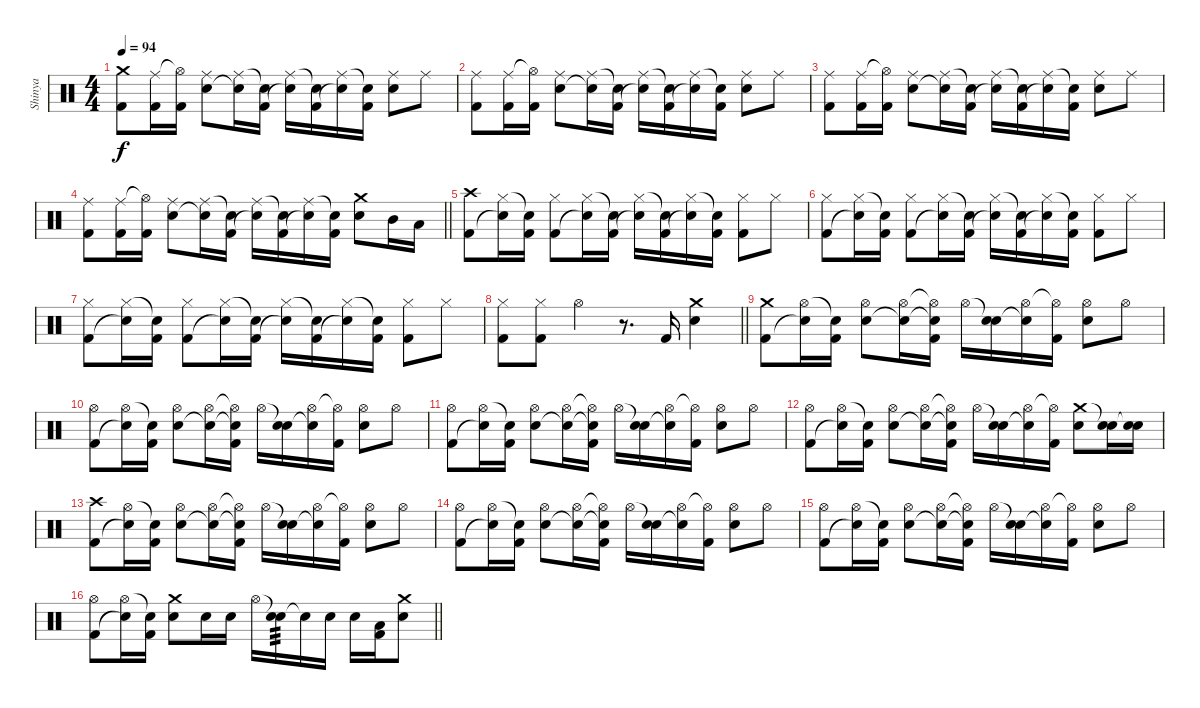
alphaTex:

\track ("Shinya" "Shinya") {instrument percussion}
\staff {score}
\articulation defaults
\ts (4 4)
\tempo 94
\clef neutral
\ks c
("Crash medium (hit)" "Kick (hit) 2").8{dy f} ("Ride (middle)" "Kick (hit) 2").16 ("Hi-Hat (open)"{t} "Kick (hit) 2").16 ("Ride (middle)" "Snare (hit) 2").8 ("Ride (middle)" "Snare (hit)"{t}).16 ("Snare (hit)"{t} "Kick (hit) 2").16 ("Ride (middle)" "Snare (hit)"{t}).16 ("Snare (hit)"{t} "Kick (hit) 2").16 ("Ride (middle)" "Snare (hit)"{t}).16 ("Snare (hit)"{t} "Kick (hit) 2").16 ("Ride (middle)" "Snare (hit) 2").8 "Ride (middle)".8 |
("Ride (middle)" "Kick (hit) 2").8 ("Ride (middle)" "Kick (hit) 2").16 ("Hi-Hat (open)"{t} "Kick (hit) 2").16 ("Ride (middle)" "Snare (hit) 2").8 ("Ride (middle)" "Snare (hit)"{t}).16 ("Snare (hit)"{t} "Kick (hit) 2").16 ("Ride (middle)" "Snare (hit)"{t}).16 ("Snare (hit)"{t} "Kick (hit) 2").16 ("Ride (middle)" "Snare (hit)"{t}).16 ("Snare (hit)"{t} "Kick (hit) 2").16 ("Ride (middle)" "Snare (hit) 2").8 "Ride (middle)".8 |
("Ride (middle)" "Kick (hit) 2").8 ("Ride (middle)" "Kick (hit) 2").16 ("Hi-Hat (open)"{t} "Kick (hit) 2").16 ("Ride (middle)" "Snare (hit) 2").8 ("Ride (middle)" "Snare (hit)"{t}).16 ("Snare (hit)"{t} "Kick (hit) 2").16 ("Ride (middle)" "Snare (hit)"{t}).16 ("Snare (hit)"{t} "Kick (hit) 2").16 ("Ride (middle)" "Snare (hit)"{t}).16 ("Snare (hit)"{t} "Kick (hit) 2").16 ("Ride (middle)" "Snare (hit) 2").8 "Ride (middle)".8 |
\barLineRight lightlight
("Ride (middle)" "Kick (hit) 2").8 ("Ride (middle)" "Kick (hit) 2").16 ("Hi-Hat (open)"{t} "Kick (hit) 2").16 ("Ride (middle)" "Snare (hit) 2").8 ("Ride (middle)" "Snare (hit)"{t}).16 ("Snare (hit)"{t} "Kick (hit) 2").16 ("Ride (middle)" "Snare (hit)"{t}).16 ("Snare (hit)"{t} "Kick (hit) 2").16 ("Ride (middle)" "Snare (hit)"{t}).16 ("Snare (hit)"{t} "Kick (hit) 2").16 ("Crash medium (hit)" "Snare (hit) 2").8 "Mid Tom (hit)".16 "Low Tom (hit)".16 |
("Crash high (hit)" "Kick (hit) 2").8 ("Hi-Hat (closed)" "Snare (hit)"{t}).16 ("Snare (hit)"{t} "Kick (hit) 2").16 ("Hi-Hat (closed)" "Kick (hit) 2").8 ("Hi-Hat (closed)" "Snare (hit)"{t}).16 ("Snare (hit)"{t} "Kick (hit) 2").16 ("Hi-Hat (closed)" "Snare (hit)"{t}).16 ("Snare (hit)"{t} "Kick (hit) 2").16 ("Hi-Hat (closed)" "Snare (hit)"{t}).16 ("Snare (hit)"{t} "Kick (hit) 2").16 ("Hi-Hat (closed)" "Kick (hit) 2").8 "Hi-Hat (closed)".8 |
("Hi-Hat (closed)" "Kick (hit) 2").8 ("Hi-Hat (closed)" "Snare (hit)"{t}).16 ("Snare (hit)"{t} "Kick (hit) 2").16 ("Hi-Hat (closed)" "Kick (hit) 2").8 ("Hi-Hat (closed)" "Snare (hit)"{t}).16 ("Snare (hit)"{t} "Kick (hit) 2").16 ("Hi-Hat (closed)" "Snare (hit)"{t}).16 ("Snare (hit)"{t} "Kick (hit) 2").16 ("Hi-Hat (closed)" "Snare (hit)"{t}).16 ("Snare (hit)"{t} "Kick (hit) 2").16 ("Hi-Hat (closed)" "Kick (hit) 2").8 "Hi-Hat (closed)".8 |
("Hi-Hat (closed)" "Kick (hit) 2").8 ("Hi-Hat (closed)" "Snare (hit)"{t}).16 ("Snare (hit)"{t} "Kick (hit) 2").16 ("Hi-Hat (closed)" "Kick (hit) 2").8 ("Hi-Hat (closed)" "Snare (hit)"{t}).16 ("Snare (hit)"{t} "Kick (hit) 2").16 ("Hi-Hat (closed)" "Snare (hit)"{t}).16 ("Snare (hit)"{t} "Kick (hit) 2").16 ("Hi-Hat (closed)" "Snare (hit)"{t}).16 ("Snare (hit)"{t} "Kick (hit) 2").16 ("Hi-Hat (closed)" "Kick (hit) 2").8 "Hi-Hat (closed)".8 |
\barLineRight lightlight
("Hi-Hat (closed)" "Kick (hit) 2").8 ("Hi-Hat (closed)" "Kick (hit) 2").8 "Hi-Hat (open)".4 r.8{d} "Kick (hit) 2".16 ("Crash medium (hit)" "Snare (hit) 2").4 |
("Crash medium (hit)" "Kick (hit) 2").8 ("Hi-Hat (open)" "Snare (hit)"{t}).16 ("Snare (hit)"{t} "Kick (hit) 2").16 ("Hi-Hat (open)" "Snare (hit) 2").8 ("Hi-Hat (open)" "Snare (hit)"{t}).16 ("Hi-Hat (open)"{t} "Snare (hit)"{t} "Kick (hit) 2").16 "Hi-Hat (open)".16 ("Snare (hit)"{t} "Snare (hit) 2").16 ("Hi-Hat (open)" "Snare (hit) 2"{t}).16 ("Hi-Hat (open)"{t} "Kick (hit) 2").16 ("Hi-Hat (open)" "Snare (hit) 2").8 "Hi-Hat (open)".8 |
("Hi-Hat (open)" "Kick (hit) 2").8 ("Hi-Hat (open)" "Snare (hit)"{t}).16 ("Snare (hit)"{t} "Kick (hit) 2").16 ("Hi-Hat (open)" "Snare (hit) 2").8 ("Hi-Hat (open)" "Snare (hit)"{t}).16 ("Hi-Hat (open)"{t} "Snare (hit)"{t} "Kick (hit) 2").16 "Hi-Hat (open)".16 ("Snare (hit)"{t} "Snare (hit) 2").16 ("Hi-Hat (open)" "Snare (hit) 2"{t}).16 ("Hi-Hat (open)"{t} "Kick (hit) 2").16 ("Hi-Hat (open)" "Snare (hit) 2").8 "Hi-Hat (open)".8 |
("Hi-Hat (open)" "Kick (hit) 2").8 ("Hi-Hat (open)" "Snare (hit)"{t}).16 ("Snare (hit)"{t} "Kick (hit) 2").16 ("Hi-Hat (open)" "Snare (hit) 2").8 ("Hi-Hat (open)" "Snare (hit)"{t}).16 ("Hi-Hat (open)"{t} "Snare (hit)"{t} "Kick (hit) 2").16 "Hi-Hat (open)".16 ("Snare (hit)"{t} "Snare (hit) 2").16 ("Hi-Hat (open)" "Snare (hit) 2"{t}).16 ("Hi-Hat (open)"{t} "Kick (hit) 2").16 ("Hi-Hat (open)" "Snare (hit) 2").8 "Hi-Hat (open)".8 |
("Hi-Hat (open)" "Kick (hit) 2").8 ("Hi-Hat (open)" "Snare (hit)"{t}).16 ("Snare (hit)"{t} "Kick (hit) 2").16 ("Hi-Hat (open)" "Snare (hit) 2").8 ("Hi-Hat (open)" "Snare (hit)"{t}).16 ("Hi-Hat (open)"{t} "Snare (hit)"{t} "Kick (hit) 2").16 "Hi-Hat (open)".16 ("Snare (hit)"{t} "Snare (hit) 2").16 ("Hi-Hat (open)" "Snare (hit) 2"{t}).16 ("Hi-Hat (open)"{t} "Kick (hit) 2").16 ("Crash medium (hit)" "Snare (hit) 2").8 ("Snare (hit)"{t} "Snare (hit) 2").16 ("Snare (hit)"{t} "Snare (hit) 2").16 |
("Crash high (hit)" "Kick (hit) 2").8 ("Hi-Hat (open)" "Snare (hit)"{t}).16 ("Snare (hit)"{t} "Kick (hit) 2").16 ("Hi-Hat (open)" "Snare (hit) 2").8 ("Hi-Hat (open)" "Snare (hit)"{t}).16 ("Hi-Hat (open)"{t} "Snare (hit)"{t} "Kick (hit) 2").16 "Hi-Hat (open)".16 ("Snare (hit)"{t} "Snare (hit) 2").16 ("Hi-Hat (open)" "Snare (hit) 2"{t}).16 ("Hi-Hat (open)"{t} "Kick (hit) 2").16 ("Hi-Hat (open)" "Snare (hit) 2").8 "Hi-Hat (open)".8 |
("Hi-Hat (open)" "Kick (hit) 2").8 ("Hi-Hat (open)" "Snare (hit)"{t}).16 ("Snare (hit)"{t} "Kick (hit) 2").16 ("Hi-Hat (open)" "Snare (hit) 2").8 ("Hi-Hat (open)" "Snare (hit)"{t}).16 ("Hi-Hat (open)"{t} "Snare (hit)"{t} "Kick (hit) 2").16 "Hi-Hat (open)".16 ("Snare (hit)"{t} "Snare (hit) 2").16 ("Hi-Hat (open)" "Snare (hit) 2"{t}).16 ("Hi-Hat (open)"{t} "Kick (hit) 2").16 ("Hi-Hat (open)" "Snare (hit) 2").8 "Hi-Hat (open)".8 |
("Hi-Hat (open)" "Kick (hit) 2").8 ("Hi-Hat (open)" "Snare (hit)"{t}).16 ("Snare (hit)"{t} "Kick (hit) 2").16 ("Hi-Hat (open)" "Snare (hit) 2").8 ("Hi-Hat (open)" "Snare (hit)"{t}).16 ("Hi-Hat (open)"{t} "Snare (hit)"{t} "Kick (hit) 2").16 "Hi-Hat (open)".16 ("Snare (hit)"{t} "Snare (hit) 2").16 ("Hi-Hat (open)" "Snare (hit) 2"{t}).16 ("Hi-Hat (open)"{t} "Kick (hit) 2").16 ("Hi-Hat (open)" "Snare (hit) 2").8 "Hi-Hat (open)".8 |
\barLineRight lightlight
("Hi-Hat (open)" "Kick (hit) 2").8 ("Hi-Hat (open)" "Snare (hit)"{t}).16 ("Snare (hit)"{t} "Kick (hit) 2").16 ("Crash medium (hit)" "Snare (hit) 2").8 "Snare (hit) 2".16 "Snare (hit) 2".16 "Hi-Hat (open)".16 ("Snare (hit)"{t} "Snare (hit) 2").16{tp 3} "Snare (hit)"{t}.16 "Snare (hit) 2".16 "Snare (hit) 2".16 ("Low Tom (hit)" "Kick (hit) 2").16 ("Crash medium (hit)" "Snare (hit) 2").8
